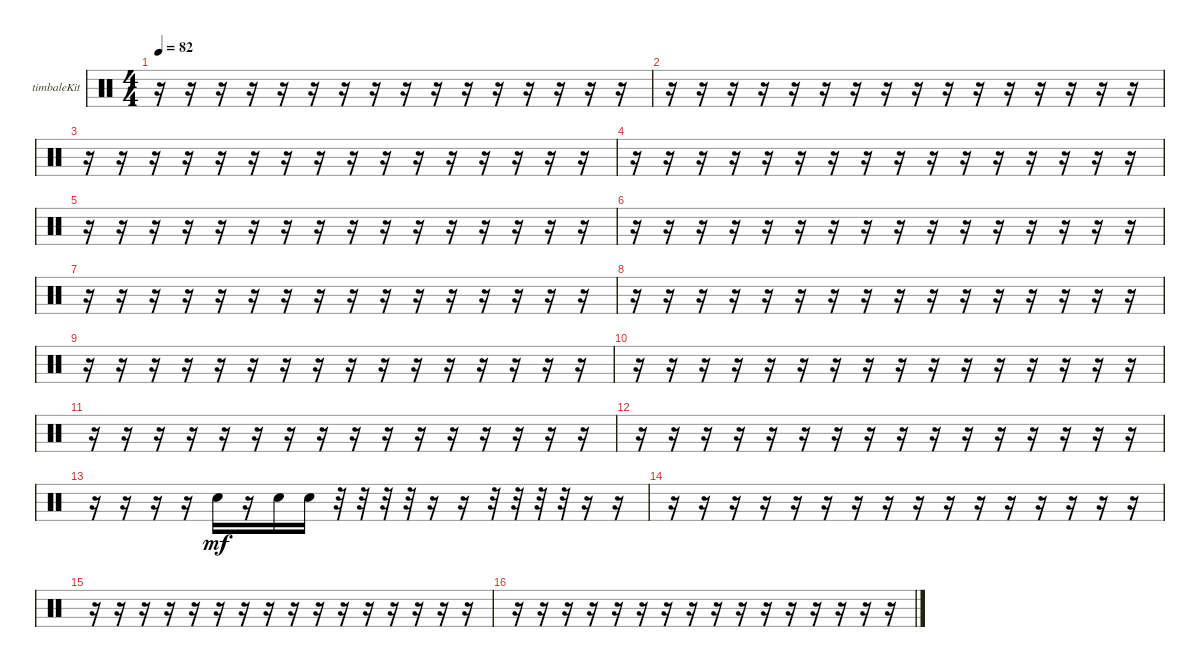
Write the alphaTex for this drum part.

\bracketExtendMode groupsimilarinstruments
\firstSystemTrackNameOrientation horizontal
\otherSystemsTrackNameOrientation horizontal
\track ("Timbale" "timbaleKit") {instrument percussion}
\staff {score}
\articulation defaults
\ts (4 4)
\tempo 82
\clef neutral
\ks aminor
r.16{dy mf} r.16 r.16 r.16 r.16 r.16 r.16 r.16 r.16 r.16 r.16 r.16 r.16 r.16 r.16 r.16 |
r.16 r.16 r.16 r.16 r.16 r.16 r.16 r.16 r.16 r.16 r.16 r.16 r.16 r.16 r.16 r.16 |
r.16 r.16 r.16 r.16 r.16 r.16 r.16 r.16 r.16 r.16 r.16 r.16 r.16 r.16 r.16 r.16 |
r.16 r.16 r.16 r.16 r.16 r.16 r.16 r.16 r.16 r.16 r.16 r.16 r.16 r.16 r.16 r.16 |
r.16 r.16 r.16 r.16 r.16 r.16 r.16 r.16 r.16 r.16 r.16 r.16 r.16 r.16 r.16 r.16 |
r.16 r.16 r.16 r.16 r.16 r.16 r.16 r.16 r.16 r.16 r.16 r.16 r.16 r.16 r.16 r.16 |
r.16 r.16 r.16 r.16 r.16 r.16 r.16 r.16 r.16 r.16 r.16 r.16 r.16 r.16 r.16 r.16 |
r.16 r.16 r.16 r.16 r.16 r.16 r.16 r.16 r.16 r.16 r.16 r.16 r.16 r.16 r.16 r.16 |
r.16 r.16 r.16 r.16 r.16 r.16 r.16 r.16 r.16 r.16 r.16 r.16 r.16 r.16 r.16 r.16 |
r.16 r.16 r.16 r.16 r.16 r.16 r.16 r.16 r.16 r.16 r.16 r.16 r.16 r.16 r.16 r.16 |
r.16 r.16 r.16 r.16 r.16 r.16 r.16 r.16 r.16 r.16 r.16 r.16 r.16 r.16 r.16 r.16 |
r.16 r.16 r.16 r.16 r.16 r.16 r.16 r.16 r.16 r.16 r.16 r.16 r.16 r.16 r.16 r.16 |
r.16 r.16 r.16 r.16 "Snare (hit) 2".16 r.16 "Snare (hit) 2".16 "Snare (hit) 2".16 r.32 r.32 r.32 r.32 r.16 r.16 r.32 r.32 r.32 r.32 r.16 r.16 |
r.16 r.16 r.16 r.16 r.16 r.16 r.16 r.16 r.16 r.16 r.16 r.16 r.16 r.16 r.16 r.16 |
r.16 r.16 r.16 r.16 r.16 r.16 r.16 r.16 r.16 r.16 r.16 r.16 r.16 r.16 r.16 r.16 |
r.16 r.16 r.16 r.16 r.16 r.16 r.16 r.16 r.16 r.16 r.16 r.16 r.16 r.16 r.16 r.16
